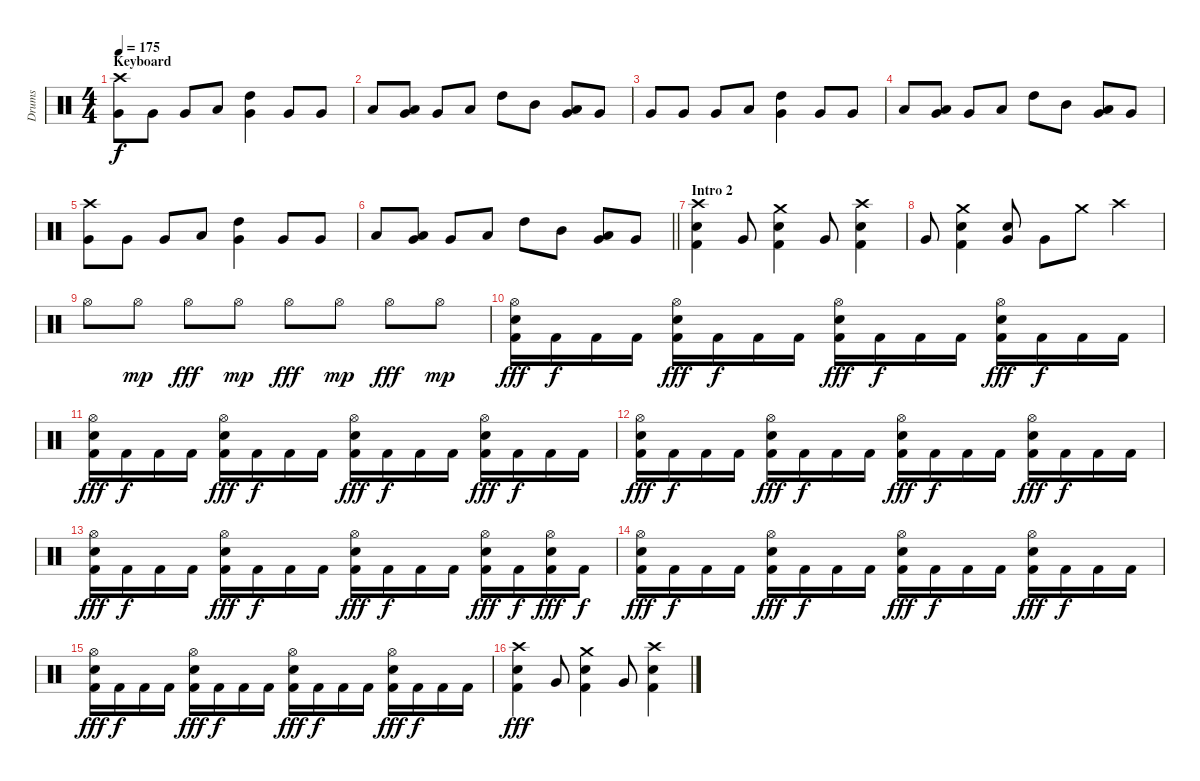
\track ("Drums" "Drums") {instrument percussion}
\staff {score}
\articulation defaults
\ts (4 4)
\section ("" "Keyboard")
\tempo 175
\clef neutral
\ks c
("Crash high (hit)" "Very Low Tom (hit)").8{dy f} "Very Low Tom (hit)".8 "Very Low Tom (hit)".8 "Low Floor Tom (hit)".8 ("High Tom (hit)" "Very Low Tom (hit)").4 "Very Low Tom (hit)".8 "Very Low Tom (hit)".8 |
"Low Floor Tom (hit)".8 ("Low Tom (hit)" "Very Low Tom (hit)").8 "Very Low Tom (hit)".8 "Low Floor Tom (hit)".8 "High Tom (hit)".8 "Mid Tom (hit)".8 ("Low Tom (hit)" "Very Low Tom (hit)").8 "Very Low Tom (hit)".8 |
"Very Low Tom (hit)".8 "Very Low Tom (hit)".8 "Very Low Tom (hit)".8 "Low Floor Tom (hit)".8 ("High Tom (hit)" "Very Low Tom (hit)").4 "Very Low Tom (hit)".8 "Very Low Tom (hit)".8 |
"Low Floor Tom (hit)".8 ("Low Tom (hit)" "Very Low Tom (hit)").8 "Very Low Tom (hit)".8 "Low Floor Tom (hit)".8 "High Tom (hit)".8 "Mid Tom (hit)".8 ("Low Tom (hit)" "Very Low Tom (hit)").8 "Very Low Tom (hit)".8 |
("Crash high (hit)" "Very Low Tom (hit)").8 "Very Low Tom (hit)".8 "Very Low Tom (hit)".8 "Low Floor Tom (hit)".8 ("High Tom (hit)" "Very Low Tom (hit)").4 "Very Low Tom (hit)".8 "Very Low Tom (hit)".8 |
\barLineRight lightlight "Low Floor Tom (hit)".8
("Low Tom (hit)" "Very Low Tom (hit)").8 "Very Low Tom (hit)".8 "Low Floor Tom (hit)".8 "High Tom (hit)".8 "Mid Tom (hit)".8 ("Low Tom (hit)" "Very Low Tom (hit)").8 "Very Low Tom (hit)".8 |
\section ("" "Intro 2")
("Crash high (hit)" "Electric Snare (hit)" "Kick (hit) 2").4 "Very Low Tom (hit)".8 ("Crash medium (hit)" "Electric Snare (hit)" "Kick (hit) 2").4 "Very Low Tom (hit)".8 ("Crash high (hit)" "Electric Snare (hit)" "Kick (hit) 2").4 |
"Very Low Tom (hit)".8 ("Crash medium (hit)" "Electric Snare (hit)" "Kick (hit) 2").4 ("Electric Snare (hit)" "Very Low Tom (hit)").8 "Very Low Tom (hit)".8 "Crash medium (hit)".8 "Crash high (hit)".4 |
"Hi-Hat (open)".8 "Hi-Hat (open)".8{dy mp} "Hi-Hat (open)".8{dy fff} "Hi-Hat (open)".8{dy mp} "Hi-Hat (open)".8{dy fff} "Hi-Hat (open)".8{dy mp} "Hi-Hat (open)".8{dy fff} "Hi-Hat (open)".8{dy mp} |
("Hi-Hat (open)" "Electric Snare (hit)" "Kick (hit) 2").16{dy fff} "Kick (hit) 2".16{dy f} "Kick (hit) 2".16 "Kick (hit) 2".16 ("Hi-Hat (open)" "Electric Snare (hit)" "Kick (hit) 2").16{dy fff} "Kick (hit) 2".16{dy f} "Kick (hit) 2".16 "Kick (hit) 2".16 ("Hi-Hat (open)" "Electric Snare (hit)" "Kick (hit) 2").16{dy fff} "Kick (hit) 2".16{dy f} "Kick (hit) 2".16 "Kick (hit) 2".16 ("Hi-Hat (open)" "Electric Snare (hit)" "Kick (hit) 2").16{dy fff} "Kick (hit) 2".16{dy f} "Kick (hit) 2".16 "Kick (hit) 2".16 |
("Hi-Hat (open)" "Electric Snare (hit)" "Kick (hit) 2").16{dy fff} "Kick (hit) 2".16{dy f} "Kick (hit) 2".16 "Kick (hit) 2".16 ("Hi-Hat (open)" "Electric Snare (hit)" "Kick (hit) 2").16{dy fff} "Kick (hit) 2".16{dy f} "Kick (hit) 2".16 "Kick (hit) 2".16 ("Hi-Hat (open)" "Electric Snare (hit)" "Kick (hit) 2").16{dy fff} "Kick (hit) 2".16{dy f} "Kick (hit) 2".16 "Kick (hit) 2".16 ("Hi-Hat (open)" "Electric Snare (hit)" "Kick (hit) 2").16{dy fff} "Kick (hit) 2".16{dy f} "Kick (hit) 2".16 "Kick (hit) 2".16 |
("Hi-Hat (open)" "Electric Snare (hit)" "Kick (hit) 2").16{dy fff} "Kick (hit) 2".16{dy f} "Kick (hit) 2".16 "Kick (hit) 2".16 ("Hi-Hat (open)" "Electric Snare (hit)" "Kick (hit) 2").16{dy fff} "Kick (hit) 2".16{dy f} "Kick (hit) 2".16 "Kick (hit) 2".16 ("Hi-Hat (open)" "Electric Snare (hit)" "Kick (hit) 2").16{dy fff} "Kick (hit) 2".16{dy f} "Kick (hit) 2".16 "Kick (hit) 2".16 ("Hi-Hat (open)" "Electric Snare (hit)" "Kick (hit) 2").16{dy fff} "Kick (hit) 2".16{dy f} "Kick (hit) 2".16 "Kick (hit) 2".16 |
("Hi-Hat (open)" "Electric Snare (hit)" "Kick (hit) 2").16{dy fff} "Kick (hit) 2".16{dy f} "Kick (hit) 2".16 "Kick (hit) 2".16 ("Hi-Hat (open)" "Electric Snare (hit)" "Kick (hit) 2").16{dy fff} "Kick (hit) 2".16{dy f} "Kick (hit) 2".16 "Kick (hit) 2".16 ("Hi-Hat (open)" "Electric Snare (hit)" "Kick (hit) 2").16{dy fff} "Kick (hit) 2".16{dy f} "Kick (hit) 2".16 "Kick (hit) 2".16 ("Hi-Hat (open)" "Electric Snare (hit)" "Kick (hit) 2").16{dy fff} "Kick (hit) 2".16{dy f} ("Hi-Hat (open)" "Electric Snare (hit)" "Kick (hit) 2").16{dy fff} "Kick (hit) 2".16{dy f} |
("Hi-Hat (open)" "Electric Snare (hit)" "Kick (hit) 2").16{dy fff} "Kick (hit) 2".16{dy f} "Kick (hit) 2".16 "Kick (hit) 2".16 ("Hi-Hat (open)" "Electric Snare (hit)" "Kick (hit) 2").16{dy fff} "Kick (hit) 2".16{dy f} "Kick (hit) 2".16 "Kick (hit) 2".16 ("Hi-Hat (open)" "Electric Snare (hit)" "Kick (hit) 2").16{dy fff} "Kick (hit) 2".16{dy f} "Kick (hit) 2".16 "Kick (hit) 2".16 ("Hi-Hat (open)" "Electric Snare (hit)" "Kick (hit) 2").16{dy fff} "Kick (hit) 2".16{dy f} "Kick (hit) 2".16 "Kick (hit) 2".16 |
("Hi-Hat (open)" "Electric Snare (hit)" "Kick (hit) 2").16{dy fff} "Kick (hit) 2".16{dy f} "Kick (hit) 2".16 "Kick (hit) 2".16 ("Hi-Hat (open)" "Electric Snare (hit)" "Kick (hit) 2").16{dy fff} "Kick (hit) 2".16{dy f} "Kick (hit) 2".16 "Kick (hit) 2".16 ("Hi-Hat (open)" "Electric Snare (hit)" "Kick (hit) 2").16{dy fff} "Kick (hit) 2".16{dy f} "Kick (hit) 2".16 "Kick (hit) 2".16 ("Hi-Hat (open)" "Electric Snare (hit)" "Kick (hit) 2").16{dy fff} "Kick (hit) 2".16{dy f} "Kick (hit) 2".16 "Kick (hit) 2".16 |
("Crash high (hit)" "Electric Snare (hit)" "Kick (hit) 2").4{dy fff} "Very Low Tom (hit)".8 ("Crash medium (hit)" "Electric Snare (hit)" "Kick (hit) 2").4 "Very Low Tom (hit)".8 ("Crash high (hit)" "Electric Snare (hit)" "Kick (hit) 2").4
